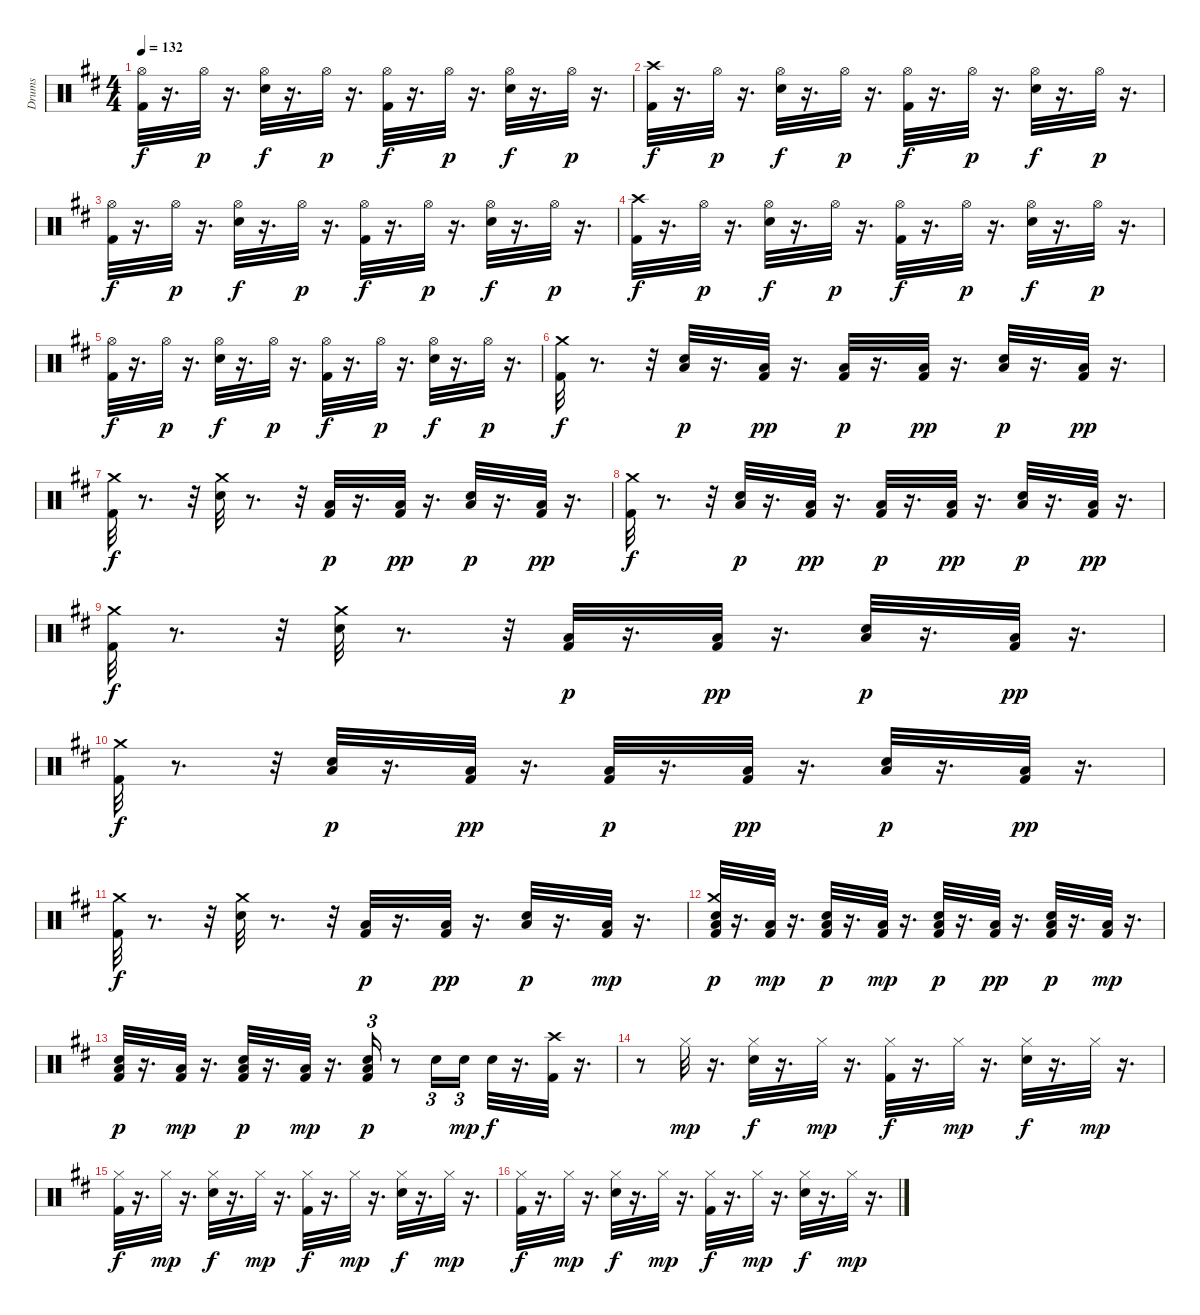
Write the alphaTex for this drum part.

\track ("Drums" "Drums") {instrument percussion}
\staff {score}
\articulation defaults
\ts (4 4)
\tempo 132
\clef neutral
\ks d
("Hi-Hat (open)" "Kick (hit) 2").32{dy f} r.16{d} "Hi-Hat (open)".32{dy p} r.16{d} ("Hi-Hat (open)" "Electric Snare (hit)").32{dy f} r.16{d} "Hi-Hat (open)".32{dy p} r.16{d} ("Hi-Hat (open)" "Kick (hit) 2").32{dy f} r.16{d} "Hi-Hat (open)".32{dy p} r.16{d} ("Hi-Hat (open)" "Electric Snare (hit)").32{dy f} r.16{d} "Hi-Hat (open)".32{dy p} r.16{d} |
("Crash high (hit)" "Kick (hit) 2").32{dy f} r.16{d} "Hi-Hat (open)".32{dy p} r.16{d} ("Hi-Hat (open)" "Electric Snare (hit)").32{dy f} r.16{d} "Hi-Hat (open)".32{dy p} r.16{d} ("Hi-Hat (open)" "Kick (hit) 2").32{dy f} r.16{d} "Hi-Hat (open)".32{dy p} r.16{d} ("Hi-Hat (open)" "Electric Snare (hit)").32{dy f} r.16{d} "Hi-Hat (open)".32{dy p} r.16{d} |
("Hi-Hat (open)" "Kick (hit) 2").32{dy f} r.16{d} "Hi-Hat (open)".32{dy p} r.16{d} ("Hi-Hat (open)" "Electric Snare (hit)").32{dy f} r.16{d} "Hi-Hat (open)".32{dy p} r.16{d} ("Hi-Hat (open)" "Kick (hit) 2").32{dy f} r.16{d} "Hi-Hat (open)".32{dy p} r.16{d} ("Hi-Hat (open)" "Electric Snare (hit)").32{dy f} r.16{d} "Hi-Hat (open)".32{dy p} r.16{d} |
("Crash high (hit)" "Kick (hit) 2").32{dy f} r.16{d} "Hi-Hat (open)".32{dy p} r.16{d} ("Hi-Hat (open)" "Electric Snare (hit)").32{dy f} r.16{d} "Hi-Hat (open)".32{dy p} r.16{d} ("Hi-Hat (open)" "Kick (hit) 2").32{dy f} r.16{d} "Hi-Hat (open)".32{dy p} r.16{d} ("Hi-Hat (open)" "Electric Snare (hit)").32{dy f} r.16{d} "Hi-Hat (open)".32{dy p} r.16{d} |
("Hi-Hat (open)" "Kick (hit) 2").32{dy f} r.16{d} "Hi-Hat (open)".32{dy p} r.16{d} ("Hi-Hat (open)" "Electric Snare (hit)").32{dy f} r.16{d} "Hi-Hat (open)".32{dy p} r.16{d} ("Hi-Hat (open)" "Kick (hit) 2").32{dy f} r.16{d} "Hi-Hat (open)".32{dy p} r.16{d} ("Hi-Hat (open)" "Electric Snare (hit)").32{dy f} r.16{d} "Hi-Hat (open)".32{dy p} r.16{d} |
("Kick (hit) 2" "Crash medium (hit)").32{dy f} r.8{d} r.32 ("Low Floor Tom (hit)" "Electric Snare (hit)").32{dy p} r.16{d} ("Kick (hit) 2" "Low Floor Tom (hit)").32{dy pp} r.16{d} ("Kick (hit) 2" "Low Floor Tom (hit)").32{dy p} r.16{d} ("Kick (hit) 2" "Low Floor Tom (hit)").32{dy pp} r.16{d} ("Low Floor Tom (hit)" "Electric Snare (hit)").32{dy p} r.16{d} ("Kick (hit) 2" "Low Floor Tom (hit)").32{dy pp} r.16{d} |
("Kick (hit) 2" "Crash medium (hit)").32{dy f} r.8{d} r.32 ("Electric Snare (hit)" "Crash medium (hit)").32 r.8{d} r.32 ("Low Floor Tom (hit)" "Kick (hit) 2").32{dy p} r.16{d} ("Kick (hit) 2" "Low Floor Tom (hit)").32{dy pp} r.16{d} ("Low Floor Tom (hit)" "Electric Snare (hit)").32{dy p} r.16{d} ("Kick (hit) 2" "Low Floor Tom (hit)").32{dy pp} r.16{d} |
("Kick (hit) 2" "Crash medium (hit)").32{dy f} r.8{d} r.32 ("Low Floor Tom (hit)" "Electric Snare (hit)").32{dy p} r.16{d} ("Kick (hit) 2" "Low Floor Tom (hit)").32{dy pp} r.16{d} ("Kick (hit) 2" "Low Floor Tom (hit)").32{dy p} r.16{d} ("Kick (hit) 2" "Low Floor Tom (hit)").32{dy pp} r.16{d} ("Low Floor Tom (hit)" "Electric Snare (hit)").32{dy p} r.16{d} ("Kick (hit) 2" "Low Floor Tom (hit)").32{dy pp} r.16{d} |
("Kick (hit) 2" "Crash medium (hit)").32{dy f} r.8{d} r.32 ("Electric Snare (hit)" "Crash medium (hit)").32 r.8{d} r.32 ("Low Floor Tom (hit)" "Kick (hit) 2").32{dy p} r.16{d} ("Kick (hit) 2" "Low Floor Tom (hit)").32{dy pp} r.16{d} ("Low Floor Tom (hit)" "Electric Snare (hit)").32{dy p} r.16{d} ("Kick (hit) 2" "Low Floor Tom (hit)").32{dy pp} r.16{d} |
("Kick (hit) 2" "Crash medium (hit)").32{dy f} r.8{d} r.32 ("Low Floor Tom (hit)" "Electric Snare (hit)").32{dy p} r.16{d} ("Kick (hit) 2" "Low Floor Tom (hit)").32{dy pp} r.16{d} ("Kick (hit) 2" "Low Floor Tom (hit)").32{dy p} r.16{d} ("Kick (hit) 2" "Low Floor Tom (hit)").32{dy pp} r.16{d} ("Low Floor Tom (hit)" "Electric Snare (hit)").32{dy p} r.16{d} ("Kick (hit) 2" "Low Floor Tom (hit)").32{dy pp} r.16{d} |
("Kick (hit) 2" "Crash medium (hit)").32{dy f} r.8{d} r.32 ("Crash medium (hit)" "Electric Snare (hit)").32 r.8{d} r.32 ("Low Floor Tom (hit)" "Kick (hit) 2").32{dy p} r.16{d} ("Kick (hit) 2" "Low Floor Tom (hit)").32{dy pp} r.16{d} ("Low Floor Tom (hit)" "Electric Snare (hit)").32{dy p} r.16{d} ("Low Floor Tom (hit)" "Kick (hit) 2").32{dy mp} r.16{d} |
("Electric Snare (hit)" "Crash medium (hit)" "Low Floor Tom (hit)" "Kick (hit) 2").32{dy p} r.16{d} ("Low Floor Tom (hit)" "Kick (hit) 2").32{dy mp} r.16{d} ("Kick (hit) 2" "Low Floor Tom (hit)" "Electric Snare (hit)").32{dy p} r.16{d} ("Low Floor Tom (hit)" "Kick (hit) 2").32{dy mp} r.16{d} ("Electric Snare (hit)" "Kick (hit) 2" "Low Floor Tom (hit)").32{dy p} r.16{d} ("Kick (hit) 2" "Low Floor Tom (hit)").32{dy pp} r.16{d} ("Kick (hit) 2" "Low Floor Tom (hit)" "Electric Snare (hit)").32{dy p} r.16{d} ("Low Floor Tom (hit)" "Kick (hit) 2").32{dy mp} r.16{d} |
("Electric Snare (hit)" "Low Floor Tom (hit)" "Kick (hit) 2").32{dy p} r.16{d} ("Low Floor Tom (hit)" "Kick (hit) 2").32{dy mp} r.16{d} ("Kick (hit) 2" "Low Floor Tom (hit)" "Electric Snare (hit)").32{dy p} r.16{d} ("Low Floor Tom (hit)" "Kick (hit) 2").32{dy mp} r.16{d} ("Electric Snare (hit)" "Low Floor Tom (hit)" "Kick (hit) 2").16{tu (3 2) dy p} r.8 "Electric Snare (hit)".16{tu (3 2)} "Electric Snare (hit)".16{tu (3 2) dy mp} "Electric Snare (hit)".32{dy f} r.16{d} ("Crash high (hit)" "Kick (hit) 2").32 r.16{d} |
r.8 "Hi-Hat (closed)".32{dy mp} r.16{d} ("Hi-Hat (closed)" "Electric Snare (hit)").32{dy f} r.16{d} "Hi-Hat (closed)".32{dy mp} r.16{d} ("Hi-Hat (closed)" "Kick (hit) 2").32{dy f} r.16{d} "Hi-Hat (closed)".32{dy mp} r.16{d} ("Hi-Hat (closed)" "Electric Snare (hit)").32{dy f} r.16{d} "Hi-Hat (closed)".32{dy mp} r.16{d} |
("Hi-Hat (closed)" "Kick (hit) 2").32{dy f} r.16{d} "Hi-Hat (closed)".32{dy mp} r.16{d} ("Hi-Hat (closed)" "Electric Snare (hit)").32{dy f} r.16{d} "Hi-Hat (closed)".32{dy mp} r.16{d} ("Hi-Hat (closed)" "Kick (hit) 2").32{dy f} r.16{d} "Hi-Hat (closed)".32{dy mp} r.16{d} ("Hi-Hat (closed)" "Electric Snare (hit)").32{dy f} r.16{d} "Hi-Hat (closed)".32{dy mp} r.16{d} |
("Hi-Hat (closed)" "Kick (hit) 2").32{dy f} r.16{d} "Hi-Hat (closed)".32{dy mp} r.16{d} ("Hi-Hat (closed)" "Electric Snare (hit)").32{dy f} r.16{d} "Hi-Hat (closed)".32{dy mp} r.16{d} ("Hi-Hat (closed)" "Kick (hit) 2").32{dy f} r.16{d} "Hi-Hat (closed)".32{dy mp} r.16{d} ("Hi-Hat (closed)" "Electric Snare (hit)").32{dy f} r.16{d} "Hi-Hat (closed)".32{dy mp} r.16{d}
